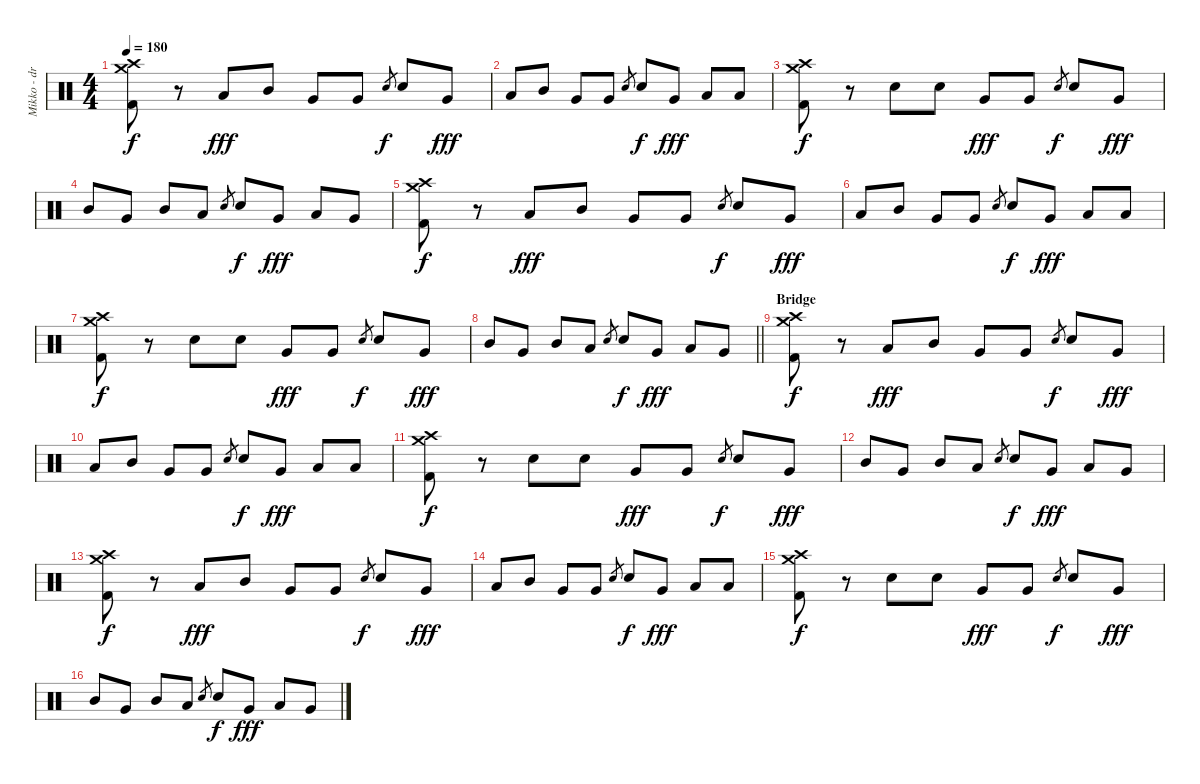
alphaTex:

\track ("Mikko - drums" "Mikko - dr") {instrument percussion}
\staff {score}
\articulation defaults
\ts (4 4)
\tempo 180
\clef neutral
\ks c
("Crash medium (hit)" "Crash high (hit)" "Kick (hit) 2").8{dy f} r.8 "Low Tom (hit)".8{dy fff} "Mid Tom (hit)".8 "Very Low Tom (hit)".8 "Very Low Tom (hit)".8 "Snare (hit) 2".8{gr dy f} "Snare (hit) 2".8 "Very Low Tom (hit)".8{dy fff} |
"Low Tom (hit)".8 "Mid Tom (hit)".8 "Very Low Tom (hit)".8 "Very Low Tom (hit)".8 "Snare (hit) 2".8{gr} "Snare (hit) 2".8{dy f} "Very Low Tom (hit)".8{dy fff} "Low Tom (hit)".8 "Low Tom (hit)".8 |
("Crash medium (hit)" "Crash high (hit)" "Kick (hit) 2").8{dy f} r.8 "Snare (hit) 2".8 "Snare (hit) 2".8 "Very Low Tom (hit)".8{dy fff} "Very Low Tom (hit)".8 "Snare (hit) 2".8{gr dy f} "Snare (hit) 2".8 "Very Low Tom (hit)".8{dy fff} |
"Mid Tom (hit)".8 "Very Low Tom (hit)".8 "Mid Tom (hit)".8 "Low Tom (hit)".8 "Snare (hit) 2".8{gr} "Snare (hit) 2".8{dy f} "Very Low Tom (hit)".8{dy fff} "Low Tom (hit)".8 "Very Low Tom (hit)".8 |
("Crash medium (hit)" "Crash high (hit)" "Kick (hit) 2").8{dy f} r.8 "Low Tom (hit)".8{dy fff} "Mid Tom (hit)".8 "Very Low Tom (hit)".8 "Very Low Tom (hit)".8 "Snare (hit) 2".8{gr dy f} "Snare (hit) 2".8 "Very Low Tom (hit)".8{dy fff} |
"Low Tom (hit)".8 "Mid Tom (hit)".8 "Very Low Tom (hit)".8 "Very Low Tom (hit)".8 "Snare (hit) 2".8{gr} "Snare (hit) 2".8{dy f} "Very Low Tom (hit)".8{dy fff} "Low Tom (hit)".8 "Low Tom (hit)".8 |
("Crash medium (hit)" "Crash high (hit)" "Kick (hit) 2").8{dy f} r.8 "Snare (hit) 2".8 "Snare (hit) 2".8 "Very Low Tom (hit)".8{dy fff} "Very Low Tom (hit)".8 "Snare (hit) 2".8{gr dy f} "Snare (hit) 2".8 "Very Low Tom (hit)".8{dy fff} |
\barLineRight lightlight "Mid Tom (hit)".8 "Very Low Tom (hit)".8 "Mid Tom (hit)".8 "Low Tom (hit)".8 "Snare (hit) 2".8{gr} "Snare (hit) 2".8{dy f} "Very Low Tom (hit)".8{dy fff} "Low Tom (hit)".8 "Very Low Tom (hit)".8
|
\section ("" "Bridge")
("Crash medium (hit)" "Crash high (hit)" "Kick (hit) 2").8{dy f} r.8 "Low Tom (hit)".8{dy fff} "Mid Tom (hit)".8 "Very Low Tom (hit)".8 "Very Low Tom (hit)".8 "Snare (hit) 2".8{gr dy f} "Snare (hit) 2".8 "Very Low Tom (hit)".8{dy fff} |
"Low Tom (hit)".8 "Mid Tom (hit)".8 "Very Low Tom (hit)".8 "Very Low Tom (hit)".8 "Snare (hit) 2".8{gr} "Snare (hit) 2".8{dy f} "Very Low Tom (hit)".8{dy fff} "Low Tom (hit)".8 "Low Tom (hit)".8 |
("Crash medium (hit)" "Crash high (hit)" "Kick (hit) 2").8{dy f} r.8 "Snare (hit) 2".8 "Snare (hit) 2".8 "Very Low Tom (hit)".8{dy fff} "Very Low Tom (hit)".8 "Snare (hit) 2".8{gr dy f} "Snare (hit) 2".8 "Very Low Tom (hit)".8{dy fff} |
"Mid Tom (hit)".8 "Very Low Tom (hit)".8 "Mid Tom (hit)".8 "Low Tom (hit)".8 "Snare (hit) 2".8{gr} "Snare (hit) 2".8{dy f} "Very Low Tom (hit)".8{dy fff} "Low Tom (hit)".8 "Very Low Tom (hit)".8 |
("Crash medium (hit)" "Crash high (hit)" "Kick (hit) 2").8{dy f} r.8 "Low Tom (hit)".8{dy fff} "Mid Tom (hit)".8 "Very Low Tom (hit)".8 "Very Low Tom (hit)".8 "Snare (hit) 2".8{gr dy f} "Snare (hit) 2".8 "Very Low Tom (hit)".8{dy fff} |
"Low Tom (hit)".8 "Mid Tom (hit)".8 "Very Low Tom (hit)".8 "Very Low Tom (hit)".8 "Snare (hit) 2".8{gr} "Snare (hit) 2".8{dy f} "Very Low Tom (hit)".8{dy fff} "Low Tom (hit)".8 "Low Tom (hit)".8 |
("Crash medium (hit)" "Crash high (hit)" "Kick (hit) 2").8{dy f} r.8 "Snare (hit) 2".8 "Snare (hit) 2".8 "Very Low Tom (hit)".8{dy fff} "Very Low Tom (hit)".8 "Snare (hit) 2".8{gr dy f} "Snare (hit) 2".8 "Very Low Tom (hit)".8{dy fff} |
"Mid Tom (hit)".8 "Very Low Tom (hit)".8 "Mid Tom (hit)".8 "Low Tom (hit)".8 "Snare (hit) 2".8{gr} "Snare (hit) 2".8{dy f} "Very Low Tom (hit)".8{dy fff} "Low Tom (hit)".8 "Very Low Tom (hit)".8
